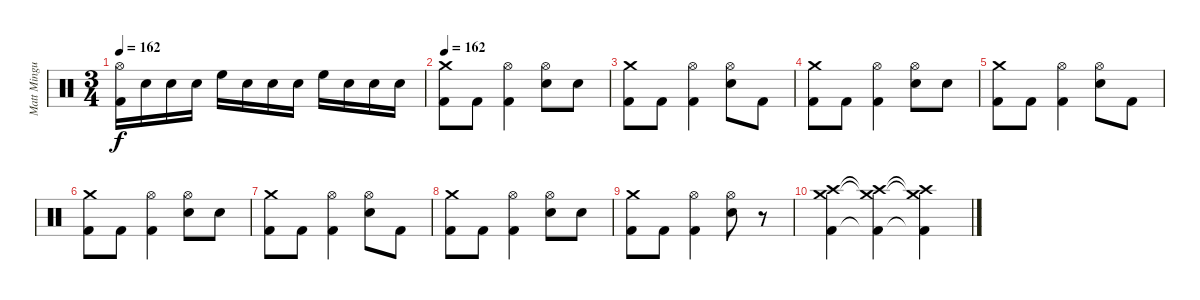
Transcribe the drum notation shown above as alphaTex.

\track ("Matt Mingus" "Matt Mingu") {instrument percussion}
\staff {score}
\articulation defaults
\ts (3 4)
\tempo 162
\clef neutral
\ks c
("Hi-Hat (open)" "Kick (hit) 2").16{dy f} "Electric Snare (hit)".16 "Electric Snare (hit)".16 "Electric Snare (hit)".16 "High Floor Tom (hit)".16 "Electric Snare (hit)".16 "Electric Snare (hit)".16 "Electric Snare (hit)".16 "High Floor Tom (hit)".16 "Electric Snare (hit)".16 "Electric Snare (hit)".16 "Electric Snare (hit)".16 |
\tempo 162
("Crash medium (hit)" "Kick (hit) 2").8 "Kick (hit) 2".8 ("Hi-Hat (open)" "Kick (hit) 2").4 ("Hi-Hat (open)" "Electric Snare (hit)").8 "Electric Snare (hit)".8 |
("Crash medium (hit)" "Kick (hit) 2").8 "Kick (hit) 2".8 ("Hi-Hat (open)" "Kick (hit) 2").4 ("Hi-Hat (open)" "Electric Snare (hit)").8 "Kick (hit) 2".8 |
("Crash medium (hit)" "Kick (hit) 2").8 "Kick (hit) 2".8 ("Hi-Hat (open)" "Kick (hit) 2").4 ("Hi-Hat (open)" "Electric Snare (hit)").8 "Electric Snare (hit)".8 |
("Crash medium (hit)" "Kick (hit) 2").8 "Kick (hit) 2".8 ("Hi-Hat (open)" "Kick (hit) 2").4 ("Hi-Hat (open)" "Electric Snare (hit)").8 "Kick (hit) 2".8 |
("Crash medium (hit)" "Kick (hit) 2").8 "Kick (hit) 2".8 ("Hi-Hat (open)" "Kick (hit) 2").4 ("Hi-Hat (open)" "Electric Snare (hit)").8 "Electric Snare (hit)".8 |
("Crash medium (hit)" "Kick (hit) 2").8 "Kick (hit) 2".8 ("Hi-Hat (open)" "Kick (hit) 2").4 ("Hi-Hat (open)" "Electric Snare (hit)").8 "Kick (hit) 2".8 |
("Crash medium (hit)" "Kick (hit) 2").8 "Kick (hit) 2".8 ("Hi-Hat (open)" "Kick (hit) 2").4 ("Hi-Hat (open)" "Electric Snare (hit)").8 "Electric Snare (hit)".8 |
("Crash medium (hit)" "Kick (hit) 2").8 "Kick (hit) 2".8 ("Hi-Hat (open)" "Kick (hit) 2").4 ("Hi-Hat (open)" "Electric Snare (hit)").8 r.8 |
("Crash high (hit)" "Crash medium (hit)" "Kick (hit) 2").4 ("Crash high (hit)"{t} "Crash medium (hit)"{t} "Kick (hit) 2"{t}).4 ("Crash high (hit)"{t} "Crash medium (hit)"{t} "Kick (hit) 2"{t}).4
